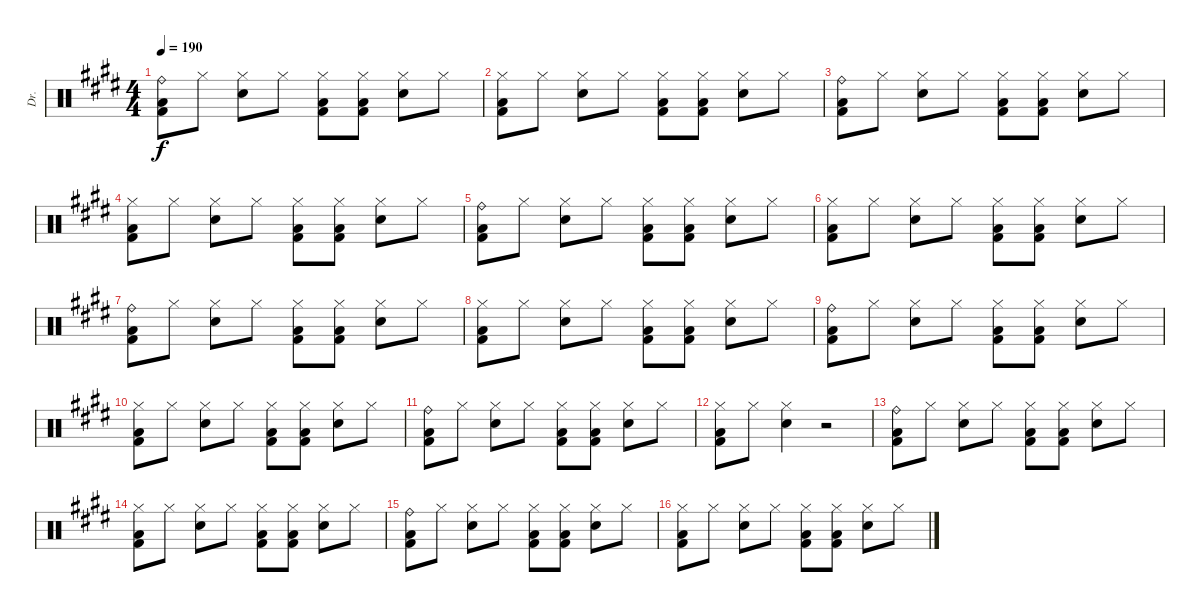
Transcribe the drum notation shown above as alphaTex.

\track ("Dr." "Dr.") {instrument percussion}
\staff {score}
\articulation defaults
\ts (4 4)
\tempo 190
\clef neutral
\ks e
("Ride (bell)" "Low Floor Tom (hit)" "Kick (hit) 2").8{dy f} "Hi-Hat (closed)".8 ("Electric Snare (hit)" "Hi-Hat (closed)").8 "Hi-Hat (closed)".8 ("Hi-Hat (closed)" "Low Floor Tom (hit)" "Kick (hit) 2").8 ("Hi-Hat (closed)" "Low Floor Tom (hit)" "Kick (hit) 2").8 ("Electric Snare (hit)" "Hi-Hat (closed)").8 "Hi-Hat (closed)".8 |
("Hi-Hat (closed)" "Low Floor Tom (hit)" "Kick (hit) 2").8 "Hi-Hat (closed)".8 ("Electric Snare (hit)" "Hi-Hat (closed)").8 "Hi-Hat (closed)".8 ("Hi-Hat (closed)" "Low Floor Tom (hit)" "Kick (hit) 2").8 ("Hi-Hat (closed)" "Low Floor Tom (hit)" "Kick (hit) 2").8 ("Electric Snare (hit)" "Hi-Hat (closed)").8 "Hi-Hat (closed)".8 |
("Ride (bell)" "Low Floor Tom (hit)" "Kick (hit) 2").8 "Hi-Hat (closed)".8 ("Electric Snare (hit)" "Hi-Hat (closed)").8 "Hi-Hat (closed)".8 ("Hi-Hat (closed)" "Low Floor Tom (hit)" "Kick (hit) 2").8 ("Hi-Hat (closed)" "Low Floor Tom (hit)" "Kick (hit) 2").8 ("Electric Snare (hit)" "Hi-Hat (closed)").8 "Hi-Hat (closed)".8 |
("Hi-Hat (closed)" "Low Floor Tom (hit)" "Kick (hit) 2").8 "Hi-Hat (closed)".8 ("Electric Snare (hit)" "Hi-Hat (closed)").8 "Hi-Hat (closed)".8 ("Hi-Hat (closed)" "Low Floor Tom (hit)" "Kick (hit) 2").8 ("Hi-Hat (closed)" "Low Floor Tom (hit)" "Kick (hit) 2").8 ("Electric Snare (hit)" "Hi-Hat (closed)").8 "Hi-Hat (closed)".8 |
("Ride (bell)" "Low Floor Tom (hit)" "Kick (hit) 2").8 "Hi-Hat (closed)".8 ("Electric Snare (hit)" "Hi-Hat (closed)").8 "Hi-Hat (closed)".8 ("Hi-Hat (closed)" "Low Floor Tom (hit)" "Kick (hit) 2").8 ("Hi-Hat (closed)" "Low Floor Tom (hit)" "Kick (hit) 2").8 ("Electric Snare (hit)" "Hi-Hat (closed)").8 "Hi-Hat (closed)".8 |
("Hi-Hat (closed)" "Low Floor Tom (hit)" "Kick (hit) 2").8 "Hi-Hat (closed)".8 ("Electric Snare (hit)" "Hi-Hat (closed)").8 "Hi-Hat (closed)".8 ("Hi-Hat (closed)" "Low Floor Tom (hit)" "Kick (hit) 2").8 ("Hi-Hat (closed)" "Low Floor Tom (hit)" "Kick (hit) 2").8 ("Electric Snare (hit)" "Hi-Hat (closed)").8 "Hi-Hat (closed)".8 |
("Ride (bell)" "Low Floor Tom (hit)" "Kick (hit) 2").8 "Hi-Hat (closed)".8 ("Electric Snare (hit)" "Hi-Hat (closed)").8 "Hi-Hat (closed)".8 ("Hi-Hat (closed)" "Low Floor Tom (hit)" "Kick (hit) 2").8 ("Hi-Hat (closed)" "Low Floor Tom (hit)" "Kick (hit) 2").8 ("Electric Snare (hit)" "Hi-Hat (closed)").8 "Hi-Hat (closed)".8 |
("Hi-Hat (closed)" "Low Floor Tom (hit)" "Kick (hit) 2").8 "Hi-Hat (closed)".8 ("Electric Snare (hit)" "Hi-Hat (closed)").8 "Hi-Hat (closed)".8 ("Hi-Hat (closed)" "Low Floor Tom (hit)" "Kick (hit) 2").8 ("Hi-Hat (closed)" "Low Floor Tom (hit)" "Kick (hit) 2").8 ("Electric Snare (hit)" "Hi-Hat (closed)").8 "Hi-Hat (closed)".8 |
("Ride (bell)" "Low Floor Tom (hit)" "Kick (hit) 2").8 "Hi-Hat (closed)".8 ("Electric Snare (hit)" "Hi-Hat (closed)").8 "Hi-Hat (closed)".8 ("Hi-Hat (closed)" "Low Floor Tom (hit)" "Kick (hit) 2").8 ("Hi-Hat (closed)" "Low Floor Tom (hit)" "Kick (hit) 2").8 ("Electric Snare (hit)" "Hi-Hat (closed)").8 "Hi-Hat (closed)".8 |
("Hi-Hat (closed)" "Low Floor Tom (hit)" "Kick (hit) 2").8 "Hi-Hat (closed)".8 ("Electric Snare (hit)" "Hi-Hat (closed)").8 "Hi-Hat (closed)".8 ("Hi-Hat (closed)" "Low Floor Tom (hit)" "Kick (hit) 2").8 ("Hi-Hat (closed)" "Low Floor Tom (hit)" "Kick (hit) 2").8 ("Electric Snare (hit)" "Hi-Hat (closed)").8 "Hi-Hat (closed)".8 |
("Ride (bell)" "Low Floor Tom (hit)" "Kick (hit) 2").8 "Hi-Hat (closed)".8 ("Electric Snare (hit)" "Hi-Hat (closed)").8 "Hi-Hat (closed)".8 ("Hi-Hat (closed)" "Low Floor Tom (hit)" "Kick (hit) 2").8 ("Hi-Hat (closed)" "Low Floor Tom (hit)" "Kick (hit) 2").8 ("Electric Snare (hit)" "Hi-Hat (closed)").8 "Hi-Hat (closed)".8 |
("Hi-Hat (closed)" "Low Floor Tom (hit)" "Kick (hit) 2").8 "Hi-Hat (closed)".8 ("Electric Snare (hit)" "Hi-Hat (closed)").4 r.2 |
("Ride (bell)" "Low Floor Tom (hit)" "Kick (hit) 2").8 "Hi-Hat (closed)".8 ("Electric Snare (hit)" "Hi-Hat (closed)").8 "Hi-Hat (closed)".8 ("Hi-Hat (closed)" "Low Floor Tom (hit)" "Kick (hit) 2").8 ("Hi-Hat (closed)" "Low Floor Tom (hit)" "Kick (hit) 2").8 ("Electric Snare (hit)" "Hi-Hat (closed)").8 "Hi-Hat (closed)".8 |
("Hi-Hat (closed)" "Low Floor Tom (hit)" "Kick (hit) 2").8 "Hi-Hat (closed)".8 ("Electric Snare (hit)" "Hi-Hat (closed)").8 "Hi-Hat (closed)".8 ("Hi-Hat (closed)" "Low Floor Tom (hit)" "Kick (hit) 2").8 ("Hi-Hat (closed)" "Low Floor Tom (hit)" "Kick (hit) 2").8 ("Electric Snare (hit)" "Hi-Hat (closed)").8 "Hi-Hat (closed)".8 |
("Ride (bell)" "Low Floor Tom (hit)" "Kick (hit) 2").8 "Hi-Hat (closed)".8 ("Electric Snare (hit)" "Hi-Hat (closed)").8 "Hi-Hat (closed)".8 ("Hi-Hat (closed)" "Low Floor Tom (hit)" "Kick (hit) 2").8 ("Hi-Hat (closed)" "Low Floor Tom (hit)" "Kick (hit) 2").8 ("Electric Snare (hit)" "Hi-Hat (closed)").8 "Hi-Hat (closed)".8 |
("Hi-Hat (closed)" "Low Floor Tom (hit)" "Kick (hit) 2").8 "Hi-Hat (closed)".8 ("Electric Snare (hit)" "Hi-Hat (closed)").8 "Hi-Hat (closed)".8 ("Hi-Hat (closed)" "Low Floor Tom (hit)" "Kick (hit) 2").8 ("Hi-Hat (closed)" "Low Floor Tom (hit)" "Kick (hit) 2").8 ("Electric Snare (hit)" "Hi-Hat (closed)").8 "Hi-Hat (closed)".8
